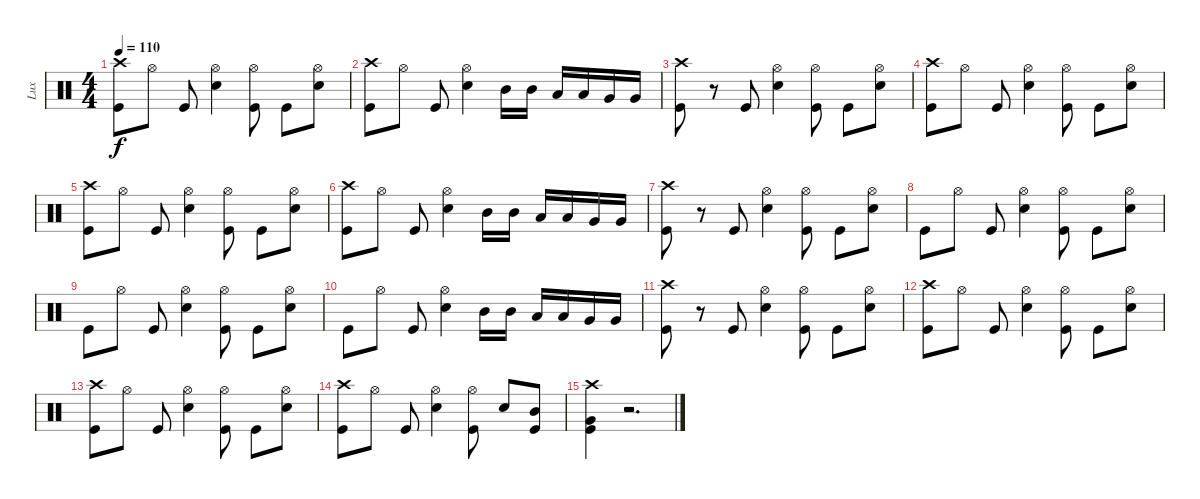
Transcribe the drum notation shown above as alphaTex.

\track ("Lux" "Lux") {mute instrument percussion}
\staff {score}
\articulation defaults
\ts (4 4)
\tempo 110
\clef neutral
\ks c
("Crash high (hit)" "Kick (hit)").8{dy f} "Hi-Hat (open)".8 "Kick (hit)".8 ("Hi-Hat (open)" "Snare (hit) 2").4 ("Hi-Hat (open)" "Kick (hit)").8 "Kick (hit)".8 ("Hi-Hat (open)" "Snare (hit) 2").8 |
("Crash high (hit)" "Kick (hit)").8 "Hi-Hat (open)".8 "Kick (hit)".8 ("Hi-Hat (open)" "Snare (hit) 2").4 "Mid Tom (hit)".16 "Mid Tom (hit)".16 "Low Tom (hit)".16 "Low Tom (hit)".16 "Very Low Tom (hit)".16 "Very Low Tom (hit)".16 |
("Crash high (hit)" "Kick (hit)").8 r.8 "Kick (hit)".8 ("Hi-Hat (open)" "Snare (hit) 2").4 ("Hi-Hat (open)" "Kick (hit)").8 "Kick (hit)".8 ("Hi-Hat (open)" "Snare (hit) 2").8 |
("Crash high (hit)" "Kick (hit)").8 "Hi-Hat (open)".8 "Kick (hit)".8 ("Hi-Hat (open)" "Snare (hit) 2").4 ("Hi-Hat (open)" "Kick (hit)").8 "Kick (hit)".8 ("Hi-Hat (open)" "Snare (hit) 2").8 |
("Crash high (hit)" "Kick (hit)").8 "Hi-Hat (open)".8 "Kick (hit)".8 ("Hi-Hat (open)" "Snare (hit) 2").4 ("Hi-Hat (open)" "Kick (hit)").8 "Kick (hit)".8 ("Hi-Hat (open)" "Snare (hit) 2").8 |
("Crash high (hit)" "Kick (hit)").8 "Hi-Hat (open)".8 "Kick (hit)".8 ("Hi-Hat (open)" "Snare (hit) 2").4 "Mid Tom (hit)".16 "Mid Tom (hit)".16 "Low Tom (hit)".16 "Low Tom (hit)".16 "Very Low Tom (hit)".16 "Very Low Tom (hit)".16 |
("Crash high (hit)" "Kick (hit)").8 r.8 "Kick (hit)".8 ("Hi-Hat (open)" "Snare (hit) 2").4 ("Hi-Hat (open)" "Kick (hit)").8 "Kick (hit)".8 ("Hi-Hat (open)" "Snare (hit) 2").8 |
"Kick (hit)".8 "Hi-Hat (open)".8 "Kick (hit)".8 ("Hi-Hat (open)" "Snare (hit) 2").4 ("Hi-Hat (open)" "Kick (hit)").8 "Kick (hit)".8 ("Hi-Hat (open)" "Snare (hit) 2").8 |
"Kick (hit)".8 "Hi-Hat (open)".8 "Kick (hit)".8 ("Hi-Hat (open)" "Snare (hit) 2").4 ("Hi-Hat (open)" "Kick (hit)").8 "Kick (hit)".8 ("Hi-Hat (open)" "Snare (hit) 2").8 |
"Kick (hit)".8 "Hi-Hat (open)".8 "Kick (hit)".8 ("Hi-Hat (open)" "Snare (hit) 2").4 "Mid Tom (hit)".16 "Mid Tom (hit)".16 "Low Tom (hit)".16 "Low Tom (hit)".16 "Very Low Tom (hit)".16 "Very Low Tom (hit)".16 |
("Crash high (hit)" "Kick (hit)").8 r.8 "Kick (hit)".8 ("Hi-Hat (open)" "Snare (hit) 2").4 ("Hi-Hat (open)" "Kick (hit)").8 "Kick (hit)".8 ("Hi-Hat (open)" "Snare (hit) 2").8 |
("Crash high (hit)" "Kick (hit)").8 "Hi-Hat (open)".8 "Kick (hit)".8 ("Hi-Hat (open)" "Snare (hit) 2").4 ("Hi-Hat (open)" "Kick (hit)").8 "Kick (hit)".8 ("Hi-Hat (open)" "Snare (hit) 2").8 |
("Crash high (hit)" "Kick (hit)").8 "Hi-Hat (open)".8 "Kick (hit)".8 ("Hi-Hat (open)" "Snare (hit) 2").4 ("Hi-Hat (open)" "Kick (hit)").8 "Kick (hit)".8 ("Hi-Hat (open)" "Snare (hit) 2").8 |
("Crash high (hit)" "Kick (hit)").8 "Hi-Hat (open)".8 "Kick (hit)".8 ("Hi-Hat (open)" "Snare (hit) 2").4 ("Hi-Hat (open)" "Kick (hit)").8 "Snare (hit) 2".8 ("Mid Tom (hit)" "Kick (hit)").8 |
("Crash high (hit)" "Very Low Tom (hit)" "Kick (hit)").4 r.2{d}
